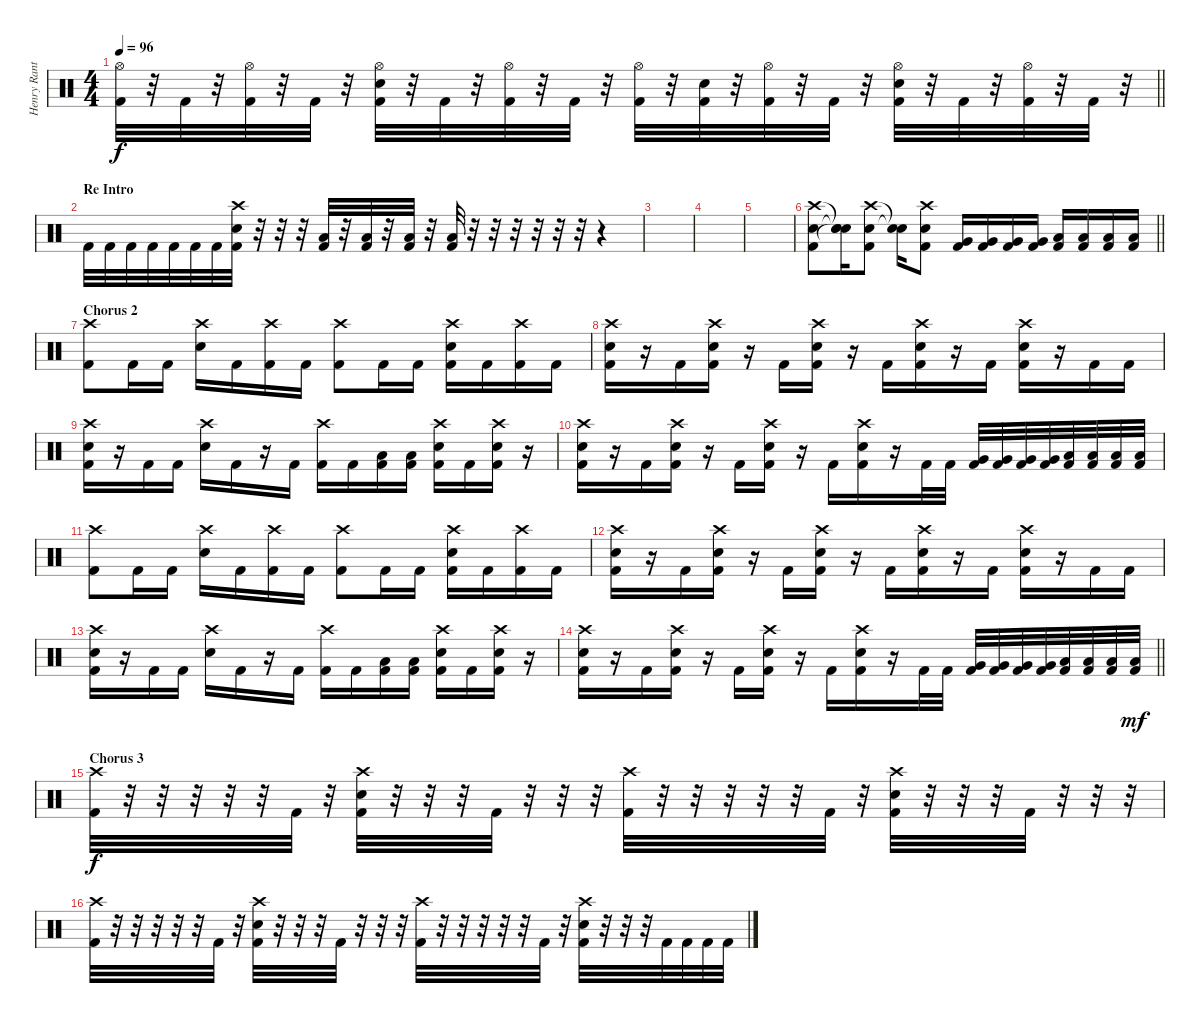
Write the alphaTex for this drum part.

\track ("Henry Ranta (Drumms)" "Henry Rant") {instrument percussion}
\staff {score}
\articulation defaults
\ts (4 4)
\tempo 96
\clef neutral
\barLineRight lightlight
\ks c
("Hi-Hat (open)" "Kick (hit) 2").32{dy f} r.32 "Kick (hit) 2".32 r.32 ("Hi-Hat (open)" "Kick (hit) 2").32 r.32 "Kick (hit) 2".32 r.32 ("Hi-Hat (open)" "Snare (hit) 2" "Kick (hit) 2").32 r.32 "Kick (hit) 2".32 r.32 ("Hi-Hat (open)" "Kick (hit) 2").32 r.32 "Kick (hit) 2".32 r.32 ("Hi-Hat (open)" "Kick (hit) 2").32 r.32 ("Snare (hit) 2" "Kick (hit) 2").32 r.32 ("Hi-Hat (open)" "Kick (hit) 2").32 r.32 "Kick (hit) 2".32 r.32 ("Hi-Hat (open)" "Snare (hit) 2" "Kick (hit) 2").32 r.32 "Kick (hit) 2".32 r.32 ("Hi-Hat (open)" "Kick (hit) 2").32 r.32 "Kick (hit) 2".32 r.32 |
\section ("" "Re Intro")
"Kick (hit) 2".32 "Kick (hit) 2".32 "Kick (hit) 2".32 "Kick (hit) 2".32 "Kick (hit) 2".32 "Kick (hit) 2".32 "Kick (hit) 2".32 ("Crash high (hit)" "Snare (hit) 2" "Kick (hit) 2").32 r.32 r.32 r.32 ("Low Floor Tom (hit)" "Kick (hit) 2").32 r.32 ("Low Floor Tom (hit)" "Kick (hit) 2").32 r.32 ("Low Floor Tom (hit)" "Kick (hit) 2").32 r.32 ("Low Floor Tom (hit)" "Kick (hit) 2").32 r.32 r.32 r.32 r.32 r.32 r.32 r.4 |
|
|
|
\barLineRight lightlight
("Crash high (hit)" "Snare (hit) 2" "Kick (hit) 2").8 ("Snare (hit)"{t} "Snare (hit)"{t} "Snare (hit)"{t}).16 ("Crash high (hit)" "Snare (hit) 2" "Kick (hit) 2").8 ("Snare (hit)"{t} "Snare (hit)"{t}).16 ("Crash high (hit)" "Snare (hit) 2" "Kick (hit) 2").8 ("Very Low Tom (hit)" "Kick (hit) 2").16 ("Very Low Tom (hit)" "Kick (hit) 2").16 ("Very Low Tom (hit)" "Kick (hit) 2").16 ("Very Low Tom (hit)" "Kick (hit) 2").16 ("Low Floor Tom (hit)" "Kick (hit) 2").16 ("Low Floor Tom (hit)" "Kick (hit) 2").16 ("Low Floor Tom (hit)" "Kick (hit) 2").16 ("Low Floor Tom (hit)" "Kick (hit) 2").16 |
\section ("" "Chorus 2")
("Crash high (hit)" "Kick (hit) 2").8 "Kick (hit) 2".16 "Kick (hit) 2".16 ("Crash high (hit)" "Snare (hit) 2").16 "Kick (hit) 2".16 ("Crash high (hit)" "Kick (hit) 2").16 "Kick (hit) 2".16 ("Crash high (hit)" "Kick (hit) 2").8 "Kick (hit) 2".16 "Kick (hit) 2".16 ("Crash high (hit)" "Snare (hit) 2" "Kick (hit) 2").16 "Kick (hit) 2".16 ("Crash high (hit)" "Kick (hit) 2").16 "Kick (hit) 2".16 |
("Crash high (hit)" "Snare (hit) 2" "Kick (hit) 2").16 r.16 "Kick (hit) 2".16 ("Crash high (hit)" "Snare (hit) 2" "Kick (hit) 2").16 r.16 "Kick (hit) 2".16 ("Crash high (hit)" "Snare (hit) 2" "Kick (hit) 2").16 r.16 "Kick (hit) 2".16 ("Crash high (hit)" "Snare (hit) 2" "Kick (hit) 2").16 r.16 "Kick (hit) 2".16 ("Crash high (hit)" "Snare (hit) 2" "Kick (hit) 2").16 r.16 "Kick (hit) 2".16 "Kick (hit) 2".16 |
("Crash high (hit)" "Snare (hit) 2" "Kick (hit) 2").16 r.16 "Kick (hit) 2".16 "Kick (hit) 2".16 ("Crash high (hit)" "Snare (hit) 2").16 "Kick (hit) 2".16 r.16 "Kick (hit) 2".16 ("Crash high (hit)" "Kick (hit) 2").16 "Kick (hit) 2".16 ("Low Floor Tom (hit)" "Kick (hit) 2").16 ("Low Floor Tom (hit)" "Kick (hit) 2").16 ("Crash high (hit)" "Snare (hit) 2" "Kick (hit) 2").16 "Kick (hit) 2".16 ("Crash high (hit)" "Snare (hit) 2" "Kick (hit) 2").16 r.16 |
("Crash high (hit)" "Snare (hit) 2" "Kick (hit) 2").16 r.16 "Kick (hit) 2".16 ("Crash high (hit)" "Snare (hit) 2" "Kick (hit) 2").16 r.16 "Kick (hit) 2".16 ("Crash high (hit)" "Snare (hit) 2" "Kick (hit) 2").16 r.16 "Kick (hit) 2".16 ("Crash high (hit)" "Snare (hit) 2" "Kick (hit) 2").16 r.16 "Kick (hit) 2".32 "Kick (hit) 2".32 ("Very Low Tom (hit)" "Kick (hit) 2").32 ("Very Low Tom (hit)" "Kick (hit) 2").32 ("Very Low Tom (hit)" "Kick (hit) 2").32 ("Very Low Tom (hit)" "Kick (hit) 2").32 ("Low Floor Tom (hit)" "Kick (hit) 2").32 ("Low Floor Tom (hit)" "Kick (hit) 2").32 ("Low Floor Tom (hit)" "Kick (hit) 2").32 ("Low Floor Tom (hit)" "Kick (hit) 2").32 |
("Crash high (hit)" "Kick (hit) 2").8 "Kick (hit) 2".16 "Kick (hit) 2".16 ("Crash high (hit)" "Snare (hit) 2").16 "Kick (hit) 2".16 ("Crash high (hit)" "Kick (hit) 2").16 "Kick (hit) 2".16 ("Crash high (hit)" "Kick (hit) 2").8 "Kick (hit) 2".16 "Kick (hit) 2".16 ("Crash high (hit)" "Snare (hit) 2" "Kick (hit) 2").16 "Kick (hit) 2".16 ("Crash high (hit)" "Kick (hit) 2").16 "Kick (hit) 2".16 |
("Crash high (hit)" "Snare (hit) 2" "Kick (hit) 2").16 r.16 "Kick (hit) 2".16 ("Crash high (hit)" "Snare (hit) 2" "Kick (hit) 2").16 r.16 "Kick (hit) 2".16 ("Crash high (hit)" "Snare (hit) 2" "Kick (hit) 2").16 r.16 "Kick (hit) 2".16 ("Crash high (hit)" "Snare (hit) 2" "Kick (hit) 2").16 r.16 "Kick (hit) 2".16 ("Crash high (hit)" "Snare (hit) 2" "Kick (hit) 2").16 r.16 "Kick (hit) 2".16 "Kick (hit) 2".16 |
("Crash high (hit)" "Snare (hit) 2" "Kick (hit) 2").16 r.16 "Kick (hit) 2".16 "Kick (hit) 2".16 ("Crash high (hit)" "Snare (hit) 2").16 "Kick (hit) 2".16 r.16 "Kick (hit) 2".16 ("Crash high (hit)" "Kick (hit) 2").16 "Kick (hit) 2".16 ("Low Floor Tom (hit)" "Kick (hit) 2").16 ("Low Floor Tom (hit)" "Kick (hit) 2").16 ("Crash high (hit)" "Snare (hit) 2" "Kick (hit) 2").16 "Kick (hit) 2".16 ("Crash high (hit)" "Snare (hit) 2" "Kick (hit) 2").16 r.16 |
\barLineRight lightlight
("Crash high (hit)" "Snare (hit) 2" "Kick (hit) 2").16 r.16 "Kick (hit) 2".16 ("Crash high (hit)" "Snare (hit) 2" "Kick (hit) 2").16 r.16 "Kick (hit) 2".16 ("Crash high (hit)" "Snare (hit) 2" "Kick (hit) 2").16 r.16 "Kick (hit) 2".16 ("Crash high (hit)" "Snare (hit) 2" "Kick (hit) 2").16 r.16 "Kick (hit) 2".32 "Kick (hit) 2".32 ("Very Low Tom (hit)" "Kick (hit) 2").32 ("Very Low Tom (hit)" "Kick (hit) 2").32 ("Very Low Tom (hit)" "Kick (hit) 2").32 ("Very Low Tom (hit)" "Kick (hit) 2").32 ("Low Floor Tom (hit)" "Kick (hit) 2").32 ("Low Floor Tom (hit)" "Kick (hit) 2").32 ("Low Floor Tom (hit)" "Kick (hit) 2").32 ("Low Floor Tom (hit)" "Kick (hit) 2").32{dy mf} |
\section ("" "Chorus 3")
("Crash high (hit)" "Kick (hit) 2").32{dy f} r.32 r.32 r.32 r.32 r.32 "Kick (hit) 2".32 r.32 ("Crash high (hit)" "Snare (hit) 2" "Kick (hit) 2").32 r.32 r.32 r.32 "Kick (hit) 2".32 r.32 r.32 r.32 ("Crash high (hit)" "Kick (hit) 2").32 r.32 r.32 r.32 r.32 r.32 "Kick (hit) 2".32 r.32 ("Crash high (hit)" "Snare (hit) 2" "Kick (hit) 2").32 r.32 r.32 r.32 "Kick (hit) 2".32 r.32 r.32 r.32 |
("Crash high (hit)" "Kick (hit) 2").32 r.32 r.32 r.32 r.32 r.32 "Kick (hit) 2".32 r.32 ("Crash high (hit)" "Snare (hit) 2" "Kick (hit) 2").32 r.32 r.32 r.32 "Kick (hit) 2".32 r.32 r.32 r.32 ("Crash high (hit)" "Kick (hit) 2").32 r.32 r.32 r.32 r.32 r.32 "Kick (hit) 2".32 r.32 ("Crash high (hit)" "Snare (hit) 2" "Kick (hit) 2").32 r.32 r.32 r.32 "Kick (hit) 2".32 "Kick (hit) 2".32 "Kick (hit) 2".32 "Kick (hit) 2".32
